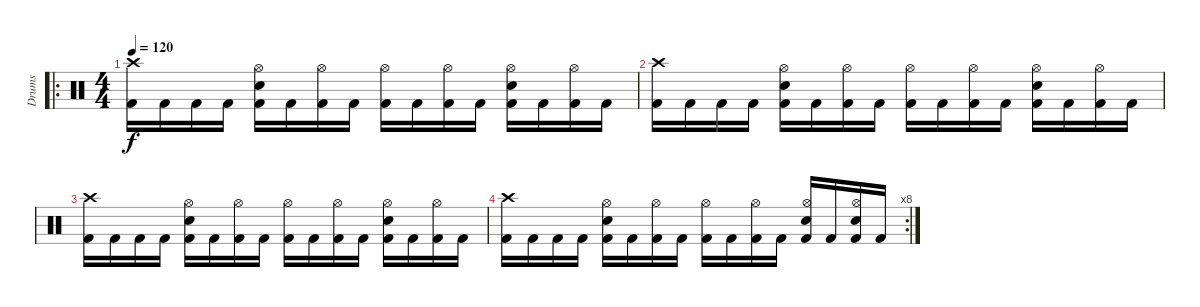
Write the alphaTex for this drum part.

\track ("Drums" "Drums") {instrument percussion}
\staff {score}
\articulation defaults
\ro
\ts (4 4)
\tempo 120
\clef neutral
\ks c
("Crash high (hit)" "Kick (hit) 2").16{dy f} "Kick (hit) 2".16 "Kick (hit) 2".16 "Kick (hit) 2".16 ("Hi-Hat (open)" "Snare (hit) 2" "Kick (hit) 2").16 "Kick (hit) 2".16 ("Hi-Hat (open)" "Kick (hit) 2").16 "Kick (hit) 2".16 ("Hi-Hat (open)" "Kick (hit) 2").16 "Kick (hit) 2".16 ("Hi-Hat (open)" "Kick (hit) 2").16 "Kick (hit) 2".16 ("Hi-Hat (open)" "Snare (hit) 2" "Kick (hit) 2").16 "Kick (hit) 2".16 ("Hi-Hat (open)" "Kick (hit) 2").16 "Kick (hit) 2".16 |
("Crash high (hit)" "Kick (hit) 2").16 "Kick (hit) 2".16 "Kick (hit) 2".16 "Kick (hit) 2".16 ("Hi-Hat (open)" "Snare (hit) 2" "Kick (hit) 2").16 "Kick (hit) 2".16 ("Hi-Hat (open)" "Kick (hit) 2").16 "Kick (hit) 2".16 ("Hi-Hat (open)" "Kick (hit) 2").16 "Kick (hit) 2".16 ("Hi-Hat (open)" "Kick (hit) 2").16 "Kick (hit) 2".16 ("Hi-Hat (open)" "Snare (hit) 2" "Kick (hit) 2").16 "Kick (hit) 2".16 ("Hi-Hat (open)" "Kick (hit) 2").16 "Kick (hit) 2".16 |
("Crash high (hit)" "Kick (hit) 2").16 "Kick (hit) 2".16 "Kick (hit) 2".16 "Kick (hit) 2".16 ("Hi-Hat (open)" "Snare (hit) 2" "Kick (hit) 2").16 "Kick (hit) 2".16 ("Hi-Hat (open)" "Kick (hit) 2").16 "Kick (hit) 2".16 ("Hi-Hat (open)" "Kick (hit) 2").16 "Kick (hit) 2".16 ("Hi-Hat (open)" "Kick (hit) 2").16 "Kick (hit) 2".16 ("Hi-Hat (open)" "Snare (hit) 2" "Kick (hit) 2").16 "Kick (hit) 2".16 ("Hi-Hat (open)" "Kick (hit) 2").16 "Kick (hit) 2".16 |
\rc 8
("Crash high (hit)" "Kick (hit) 2").16 "Kick (hit) 2".16 "Kick (hit) 2".16 "Kick (hit) 2".16 ("Hi-Hat (open)" "Snare (hit) 2" "Kick (hit) 2").16 "Kick (hit) 2".16 ("Hi-Hat (open)" "Kick (hit) 2").16 "Kick (hit) 2".16 ("Hi-Hat (open)" "Kick (hit) 2").16 "Kick (hit) 2".16 ("Hi-Hat (open)" "Kick (hit) 2").16 "Kick (hit) 2".16 ("Hi-Hat (open)" "Snare (hit) 2" "Kick (hit) 2").16 "Kick (hit) 2".16 ("Hi-Hat (open)" "Snare (hit) 2" "Kick (hit) 2").16 "Kick (hit) 2".16
